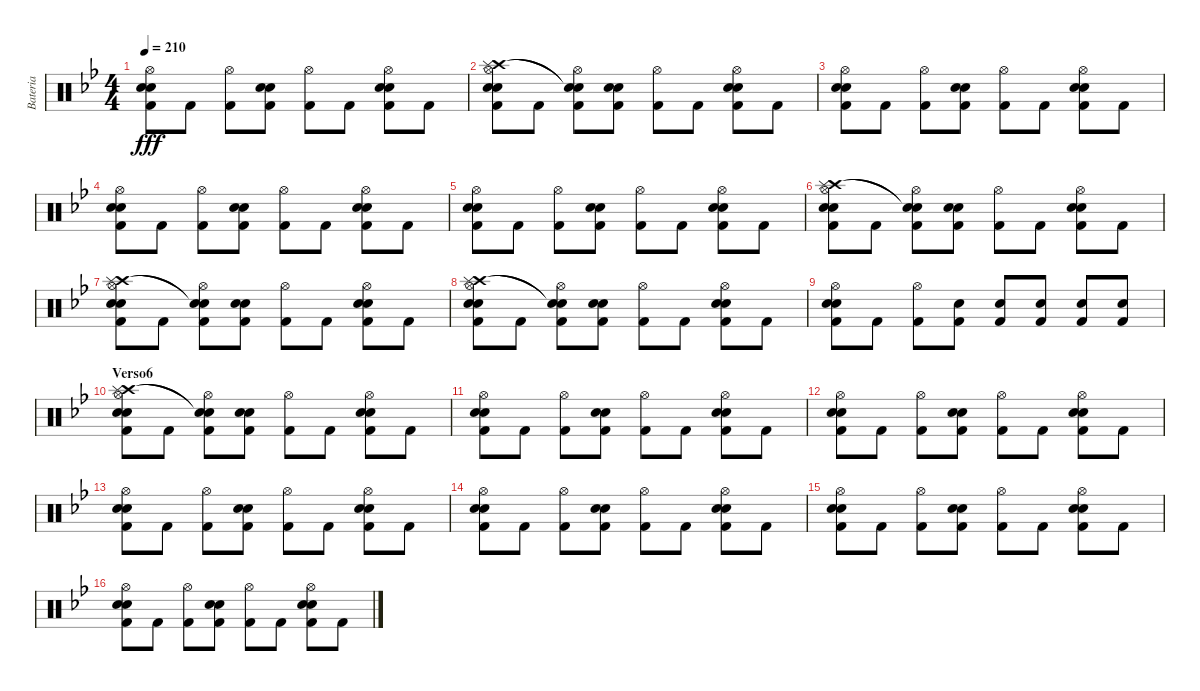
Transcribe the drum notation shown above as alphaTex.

\track ("Bateria" "Bateria") {instrument percussion}
\staff {score}
\articulation defaults
\ts (4 4)
\tempo 210
\clef neutral
\ks gminor
("Hi-Hat (open)" "Snare (hit) 2" "Kick (hit) 2" "Electric Snare (hit)").8{dy fff} "Kick (hit) 2".8 ("Hi-Hat (open)" "Kick (hit) 2").8 ("Snare (hit) 2" "Kick (hit) 2" "Electric Snare (hit)").8 ("Hi-Hat (open)" "Kick (hit) 2").8 "Kick (hit) 2".8 ("Hi-Hat (open)" "Snare (hit) 2" "Kick (hit) 2" "Electric Snare (hit)").8 "Kick (hit) 2".8 |
("Hi-Hat (open)" "Crash high (hit)" "Splash (hit)" "Snare (hit) 2" "Kick (hit) 2" "Electric Snare (hit)").8 "Kick (hit) 2".8 ("Hi-Hat (open)" "Snare (hit)"{t} "Snare (hit)"{t} "Kick (hit) 2").8 ("Snare (hit) 2" "Kick (hit) 2" "Electric Snare (hit)").8 ("Hi-Hat (open)" "Kick (hit) 2").8 "Kick (hit) 2".8 ("Hi-Hat (open)" "Snare (hit) 2" "Kick (hit) 2" "Electric Snare (hit)").8 "Kick (hit) 2".8 |
("Hi-Hat (open)" "Snare (hit) 2" "Kick (hit) 2" "Electric Snare (hit)").8 "Kick (hit) 2".8 ("Hi-Hat (open)" "Kick (hit) 2").8 ("Snare (hit) 2" "Kick (hit) 2" "Electric Snare (hit)").8 ("Hi-Hat (open)" "Kick (hit) 2").8 "Kick (hit) 2".8 ("Hi-Hat (open)" "Snare (hit) 2" "Kick (hit) 2" "Electric Snare (hit)").8 "Kick (hit) 2".8 |
("Hi-Hat (open)" "Snare (hit) 2" "Kick (hit) 2" "Electric Snare (hit)").8 "Kick (hit) 2".8 ("Hi-Hat (open)" "Kick (hit) 2").8 ("Snare (hit) 2" "Kick (hit) 2" "Electric Snare (hit)").8 ("Hi-Hat (open)" "Kick (hit) 2").8 "Kick (hit) 2".8 ("Hi-Hat (open)" "Snare (hit) 2" "Kick (hit) 2" "Electric Snare (hit)").8 "Kick (hit) 2".8 |
("Hi-Hat (open)" "Snare (hit) 2" "Kick (hit) 2" "Electric Snare (hit)").8 "Kick (hit) 2".8 ("Hi-Hat (open)" "Kick (hit) 2").8 ("Snare (hit) 2" "Kick (hit) 2" "Electric Snare (hit)").8 ("Hi-Hat (open)" "Kick (hit) 2").8 "Kick (hit) 2".8 ("Hi-Hat (open)" "Snare (hit) 2" "Kick (hit) 2" "Electric Snare (hit)").8 "Kick (hit) 2".8 |
("Hi-Hat (open)" "Crash high (hit)" "Splash (hit)" "Snare (hit) 2" "Kick (hit) 2" "Electric Snare (hit)").8 "Kick (hit) 2".8 ("Hi-Hat (open)" "Snare (hit)"{t} "Snare (hit)"{t} "Kick (hit) 2").8 ("Snare (hit) 2" "Kick (hit) 2" "Electric Snare (hit)").8 ("Hi-Hat (open)" "Kick (hit) 2").8 "Kick (hit) 2".8 ("Hi-Hat (open)" "Snare (hit) 2" "Kick (hit) 2" "Electric Snare (hit)").8 "Kick (hit) 2".8 |
("Hi-Hat (open)" "Crash high (hit)" "Splash (hit)" "Snare (hit) 2" "Kick (hit) 2" "Electric Snare (hit)").8 "Kick (hit) 2".8 ("Hi-Hat (open)" "Snare (hit)"{t} "Snare (hit)"{t} "Kick (hit) 2").8 ("Snare (hit) 2" "Kick (hit) 2" "Electric Snare (hit)").8 ("Hi-Hat (open)" "Kick (hit) 2").8 "Kick (hit) 2".8 ("Hi-Hat (open)" "Snare (hit) 2" "Kick (hit) 2" "Electric Snare (hit)").8 "Kick (hit) 2".8 |
("Hi-Hat (open)" "Crash high (hit)" "Splash (hit)" "Snare (hit) 2" "Kick (hit) 2" "Electric Snare (hit)").8 "Kick (hit) 2".8 ("Hi-Hat (open)" "Snare (hit)"{t} "Snare (hit)"{t} "Kick (hit) 2").8 ("Snare (hit) 2" "Kick (hit) 2" "Electric Snare (hit)").8 ("Hi-Hat (open)" "Kick (hit) 2").8 "Kick (hit) 2".8 ("Hi-Hat (open)" "Snare (hit) 2" "Kick (hit) 2" "Electric Snare (hit)").8 "Kick (hit) 2".8 |
("Hi-Hat (open)" "Snare (hit) 2" "Kick (hit) 2" "Electric Snare (hit)").8 "Kick (hit) 2".8 ("Hi-Hat (open)" "Kick (hit) 2").8 ("Snare (hit) 2" "Kick (hit) 2").8 ("Snare (hit) 2" "Kick (hit) 2").8 ("Snare (hit) 2" "Kick (hit) 2").8 ("Snare (hit) 2" "Kick (hit) 2").8 ("Snare (hit) 2" "Kick (hit) 2").8 |
\section ("" "Verso6")
("Hi-Hat (open)" "Crash high (hit)" "Splash (hit)" "Snare (hit) 2" "Electric Snare (hit)" "Kick (hit) 2").8 "Kick (hit) 2".8 ("Hi-Hat (open)" "Snare (hit)"{t} "Snare (hit)"{t} "Kick (hit) 2").8 ("Snare (hit) 2" "Electric Snare (hit)" "Kick (hit) 2").8 ("Hi-Hat (open)" "Kick (hit) 2").8 "Kick (hit) 2".8 ("Hi-Hat (open)" "Snare (hit) 2" "Electric Snare (hit)" "Kick (hit) 2").8 "Kick (hit) 2".8 |
("Hi-Hat (open)" "Snare (hit) 2" "Kick (hit) 2" "Electric Snare (hit)").8 "Kick (hit) 2".8 ("Hi-Hat (open)" "Kick (hit) 2").8 ("Snare (hit) 2" "Kick (hit) 2" "Electric Snare (hit)").8 ("Hi-Hat (open)" "Kick (hit) 2").8 "Kick (hit) 2".8 ("Hi-Hat (open)" "Snare (hit) 2" "Kick (hit) 2" "Electric Snare (hit)").8 "Kick (hit) 2".8 |
("Hi-Hat (open)" "Snare (hit) 2" "Kick (hit) 2" "Electric Snare (hit)").8 "Kick (hit) 2".8 ("Hi-Hat (open)" "Kick (hit) 2").8 ("Snare (hit) 2" "Kick (hit) 2" "Electric Snare (hit)").8 ("Hi-Hat (open)" "Kick (hit) 2").8 "Kick (hit) 2".8 ("Hi-Hat (open)" "Snare (hit) 2" "Kick (hit) 2" "Electric Snare (hit)").8 "Kick (hit) 2".8 |
("Hi-Hat (open)" "Snare (hit) 2" "Kick (hit) 2" "Electric Snare (hit)").8 "Kick (hit) 2".8 ("Hi-Hat (open)" "Kick (hit) 2").8 ("Snare (hit) 2" "Kick (hit) 2" "Electric Snare (hit)").8 ("Hi-Hat (open)" "Kick (hit) 2").8 "Kick (hit) 2".8 ("Hi-Hat (open)" "Snare (hit) 2" "Kick (hit) 2" "Electric Snare (hit)").8 "Kick (hit) 2".8 |
("Hi-Hat (open)" "Snare (hit) 2" "Kick (hit) 2" "Electric Snare (hit)").8 "Kick (hit) 2".8 ("Hi-Hat (open)" "Kick (hit) 2").8 ("Snare (hit) 2" "Kick (hit) 2" "Electric Snare (hit)").8 ("Hi-Hat (open)" "Kick (hit) 2").8 "Kick (hit) 2".8 ("Hi-Hat (open)" "Snare (hit) 2" "Kick (hit) 2" "Electric Snare (hit)").8 "Kick (hit) 2".8 |
("Hi-Hat (open)" "Snare (hit) 2" "Kick (hit) 2" "Electric Snare (hit)").8 "Kick (hit) 2".8 ("Hi-Hat (open)" "Kick (hit) 2").8 ("Snare (hit) 2" "Kick (hit) 2" "Electric Snare (hit)").8 ("Hi-Hat (open)" "Kick (hit) 2").8 "Kick (hit) 2".8 ("Hi-Hat (open)" "Snare (hit) 2" "Kick (hit) 2" "Electric Snare (hit)").8 "Kick (hit) 2".8 |
("Hi-Hat (open)" "Snare (hit) 2" "Kick (hit) 2" "Electric Snare (hit)").8 "Kick (hit) 2".8 ("Hi-Hat (open)" "Kick (hit) 2").8 ("Snare (hit) 2" "Kick (hit) 2" "Electric Snare (hit)").8 ("Hi-Hat (open)" "Kick (hit) 2").8 "Kick (hit) 2".8 ("Hi-Hat (open)" "Snare (hit) 2" "Kick (hit) 2" "Electric Snare (hit)").8 "Kick (hit) 2".8
